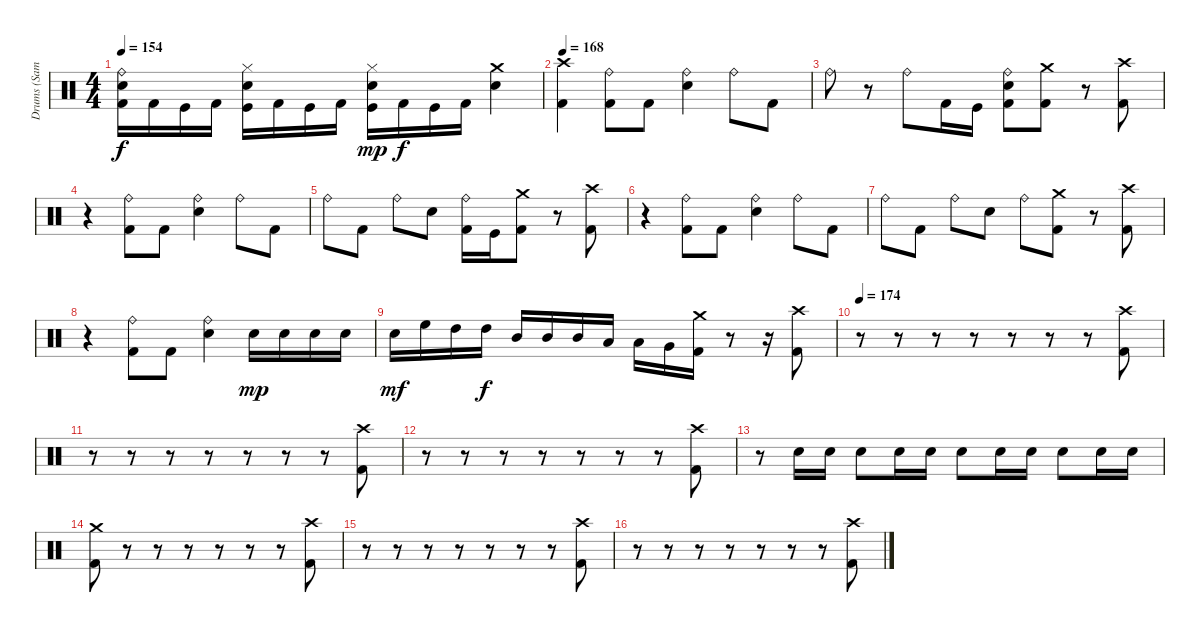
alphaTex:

\track ("Drums (Samuelson)" "Drums (Sam") {instrument percussion}
\staff
\articulation defaults
\ts (4 4)
\tempo 154
\clef neutral
\ks c
("Ride (bell)" "Electric Snare (hit)" "Kick (hit) 2").16{dy f} "Kick (hit) 2".16 "Kick (hit)".16 "Kick (hit) 2".16 ("Hi-Hat (closed)" "Electric Snare (hit)" "Kick (hit)").16 "Kick (hit) 2".16 "Kick (hit)".16 "Kick (hit) 2".16 ("Hi-Hat (closed)" "Electric Snare (hit)" "Kick (hit)").16{dy mp} "Kick (hit) 2".16{dy f} "Kick (hit)".16 "Kick (hit) 2".16 ("Crash medium (hit)" "Electric Snare (hit)").4 |
\tempo 168
("Crash high (hit)" "Kick (hit) 2").4 ("Ride (bell)" "Kick (hit) 2").8 "Kick (hit) 2".8 ("Ride (bell)" "Electric Snare (hit)").4 "Ride (bell)".8 "Kick (hit) 2".8 |
"Ride (bell)".8 r.8 "Ride (bell)".8 "Kick (hit) 2".16 "Kick (hit)".16 ("Ride (bell)" "Electric Snare (hit)" "Kick (hit) 2").8 ("Crash medium (hit)" "Kick (hit) 2").8 r.8 ("Crash high (hit)" "Kick (hit) 2").8 |
r.4 ("Ride (bell)" "Kick (hit) 2").8 "Kick (hit) 2".8 ("Ride (bell)" "Electric Snare (hit)").4 "Ride (bell)".8 "Kick (hit) 2".8 |
"Ride (bell)".8 "Kick (hit) 2".8 "Ride (bell)".8 "Electric Snare (hit)".8 ("Ride (bell)" "Kick (hit) 2").16 "Kick (hit)".16 ("Crash medium (hit)" "Kick (hit) 2").8 r.8 ("Crash high (hit)" "Kick (hit) 2").8 |
r.4 ("Ride (bell)" "Kick (hit) 2").8 "Kick (hit) 2".8 ("Ride (bell)" "Electric Snare (hit)").4 "Ride (bell)".8 "Kick (hit) 2".8 |
"Ride (bell)".8 "Kick (hit) 2".8 "Ride (bell)".8 "Electric Snare (hit)".8 "Ride (bell)".8 ("Crash medium (hit)" "Kick (hit) 2").8 r.8 ("Crash high (hit)" "Kick (hit) 2").8 |
r.4 ("Ride (bell)" "Kick (hit) 2").8 "Kick (hit) 2".8 ("Ride (bell)" "Electric Snare (hit)").4 "Electric Snare (hit)".16{dy mp} "Electric Snare (hit)".16 "Electric Snare (hit)".16 "Electric Snare (hit)".16 |
"Electric Snare (hit)".16{dy mf} "High Floor Tom (hit)".16 "High Tom (hit)".16 "High Tom (hit)".16{dy f} "Mid Tom (hit)".16 "Mid Tom (hit)".16 "Mid Tom (hit)".16 "Low Tom (hit)".16 "Low Tom (hit)".16 "Very Low Tom (hit)".16 ("Crash medium (hit)" "Kick (hit) 2").16 r.8 r.16 ("Crash high (hit)" "Kick (hit) 2").8 |
\tempo 174
r.8 r.8 r.8 r.8 r.8 r.8 r.8 ("Crash high (hit)" "Kick (hit) 2").8 |
r.8 r.8 r.8 r.8 r.8 r.8 r.8 ("Crash high (hit)" "Kick (hit) 2").8 |
r.8 r.8 r.8 r.8 r.8 r.8 r.8 ("Crash high (hit)" "Kick (hit) 2").8 |
r.8 "Electric Snare (hit)".16 "Electric Snare (hit)".16 "Electric Snare (hit)".8 "Electric Snare (hit)".16 "Electric Snare (hit)".16 "Electric Snare (hit)".8 "Electric Snare (hit)".16 "Electric Snare (hit)".16 "Electric Snare (hit)".8 "Electric Snare (hit)".16 "Electric Snare (hit)".16 |
("Crash medium (hit)" "Kick (hit) 2").8 r.8 r.8 r.8 r.8 r.8 r.8 ("Crash high (hit)" "Kick (hit) 2").8 |
r.8 r.8 r.8 r.8 r.8 r.8 r.8 ("Crash high (hit)" "Kick (hit) 2").8 |
r.8 r.8 r.8 r.8 r.8 r.8 r.8 ("Crash high (hit)" "Kick (hit) 2").8
